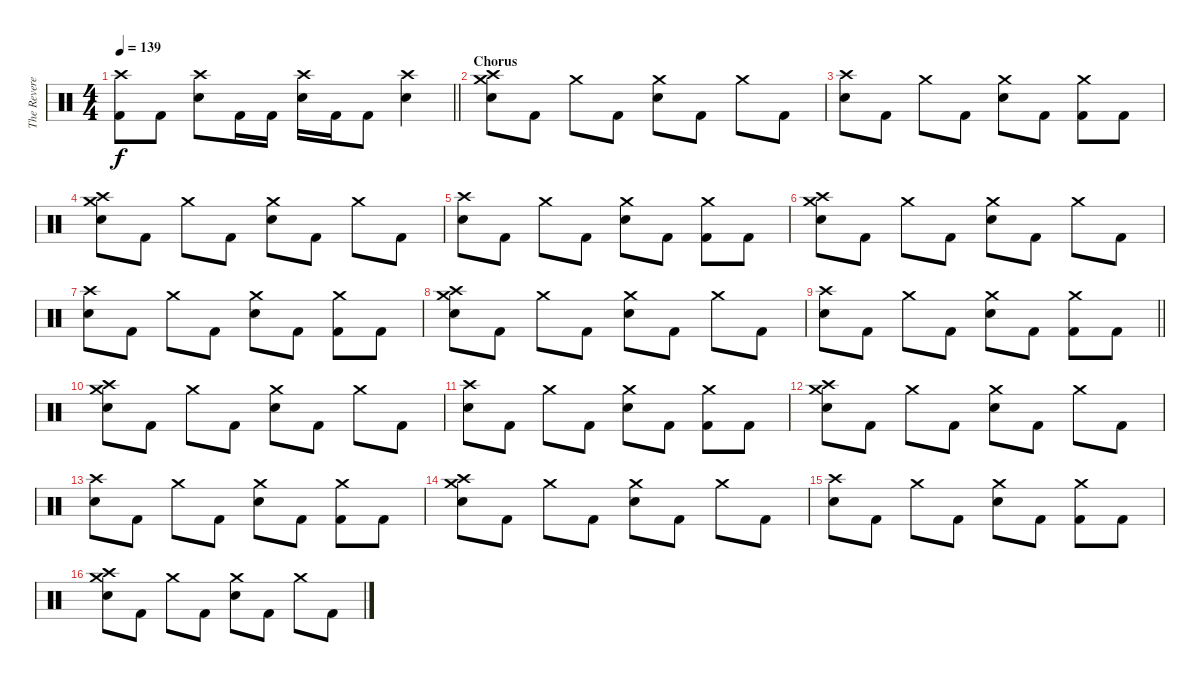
\track ("The Reverend" "The Revere") {instrument percussion}
\staff {score}
\articulation defaults
\ts (4 4)
\tempo 139
\clef neutral
\barLineRight lightlight
\ks c
("Crash high (hit)" "Kick (hit) 2").8{dy f} "Kick (hit) 2".8 ("Crash high (hit)" "Electric Snare (hit)").8 "Kick (hit) 2".16 "Kick (hit) 2".16 ("Crash high (hit)" "Electric Snare (hit)").16 "Kick (hit) 2".16 "Kick (hit) 2".8 ("Crash high (hit)" "Electric Snare (hit)").4 |
\section ("" "Chorus")
("Crash high (hit)" "Crash medium (hit)" "Electric Snare (hit)").8 "Kick (hit) 2".8 "Crash medium (hit)".8 "Kick (hit) 2".8 ("Crash medium (hit)" "Electric Snare (hit)").8 "Kick (hit) 2".8 "Crash medium (hit)".8 "Kick (hit) 2".8 |
("Crash high (hit)" "Electric Snare (hit)").8 "Kick (hit) 2".8 "Crash medium (hit)".8 "Kick (hit) 2".8 ("Crash medium (hit)" "Electric Snare (hit)").8 "Kick (hit) 2".8 ("Crash medium (hit)" "Kick (hit) 2").8 "Kick (hit) 2".8 |
("Crash high (hit)" "Crash medium (hit)" "Electric Snare (hit)").8 "Kick (hit) 2".8 "Crash medium (hit)".8 "Kick (hit) 2".8 ("Crash medium (hit)" "Electric Snare (hit)").8 "Kick (hit) 2".8 "Crash medium (hit)".8 "Kick (hit) 2".8 |
("Crash high (hit)" "Electric Snare (hit)").8 "Kick (hit) 2".8 "Crash medium (hit)".8 "Kick (hit) 2".8 ("Crash medium (hit)" "Electric Snare (hit)").8 "Kick (hit) 2".8 ("Crash medium (hit)" "Kick (hit) 2").8 "Kick (hit) 2".8 |
("Crash high (hit)" "Crash medium (hit)" "Electric Snare (hit)").8 "Kick (hit) 2".8 "Crash medium (hit)".8 "Kick (hit) 2".8 ("Crash medium (hit)" "Electric Snare (hit)").8 "Kick (hit) 2".8 "Crash medium (hit)".8 "Kick (hit) 2".8 |
("Crash high (hit)" "Electric Snare (hit)").8 "Kick (hit) 2".8 "Crash medium (hit)".8 "Kick (hit) 2".8 ("Crash medium (hit)" "Electric Snare (hit)").8 "Kick (hit) 2".8 ("Crash medium (hit)" "Kick (hit) 2").8 "Kick (hit) 2".8 |
("Crash high (hit)" "Crash medium (hit)" "Electric Snare (hit)").8 "Kick (hit) 2".8 "Crash medium (hit)".8 "Kick (hit) 2".8 ("Crash medium (hit)" "Electric Snare (hit)").8 "Kick (hit) 2".8 "Crash medium (hit)".8 "Kick (hit) 2".8 |
\barLineRight lightlight
("Crash high (hit)" "Electric Snare (hit)").8 "Kick (hit) 2".8 "Crash medium (hit)".8 "Kick (hit) 2".8 ("Crash medium (hit)" "Electric Snare (hit)").8 "Kick (hit) 2".8 ("Crash medium (hit)" "Kick (hit) 2").8 "Kick (hit) 2".8 |
("Crash high (hit)" "Crash medium (hit)" "Electric Snare (hit)").8 "Kick (hit) 2".8 "Crash medium (hit)".8 "Kick (hit) 2".8 ("Crash medium (hit)" "Electric Snare (hit)").8 "Kick (hit) 2".8 "Crash medium (hit)".8 "Kick (hit) 2".8 |
("Crash high (hit)" "Electric Snare (hit)").8 "Kick (hit) 2".8 "Crash medium (hit)".8 "Kick (hit) 2".8 ("Crash medium (hit)" "Electric Snare (hit)").8 "Kick (hit) 2".8 ("Crash medium (hit)" "Kick (hit) 2").8 "Kick (hit) 2".8 |
("Crash high (hit)" "Crash medium (hit)" "Electric Snare (hit)").8 "Kick (hit) 2".8 "Crash medium (hit)".8 "Kick (hit) 2".8 ("Crash medium (hit)" "Electric Snare (hit)").8 "Kick (hit) 2".8 "Crash medium (hit)".8 "Kick (hit) 2".8 |
("Crash high (hit)" "Electric Snare (hit)").8 "Kick (hit) 2".8 "Crash medium (hit)".8 "Kick (hit) 2".8 ("Crash medium (hit)" "Electric Snare (hit)").8 "Kick (hit) 2".8 ("Crash medium (hit)" "Kick (hit) 2").8 "Kick (hit) 2".8 |
("Crash high (hit)" "Crash medium (hit)" "Electric Snare (hit)").8 "Kick (hit) 2".8 "Crash medium (hit)".8 "Kick (hit) 2".8 ("Crash medium (hit)" "Electric Snare (hit)").8 "Kick (hit) 2".8 "Crash medium (hit)".8 "Kick (hit) 2".8 |
("Crash high (hit)" "Electric Snare (hit)").8 "Kick (hit) 2".8 "Crash medium (hit)".8 "Kick (hit) 2".8 ("Crash medium (hit)" "Electric Snare (hit)").8 "Kick (hit) 2".8 ("Crash medium (hit)" "Kick (hit) 2").8 "Kick (hit) 2".8 |
("Crash high (hit)" "Crash medium (hit)" "Electric Snare (hit)").8 "Kick (hit) 2".8 "Crash medium (hit)".8 "Kick (hit) 2".8 ("Crash medium (hit)" "Electric Snare (hit)").8 "Kick (hit) 2".8 "Crash medium (hit)".8 "Kick (hit) 2".8
